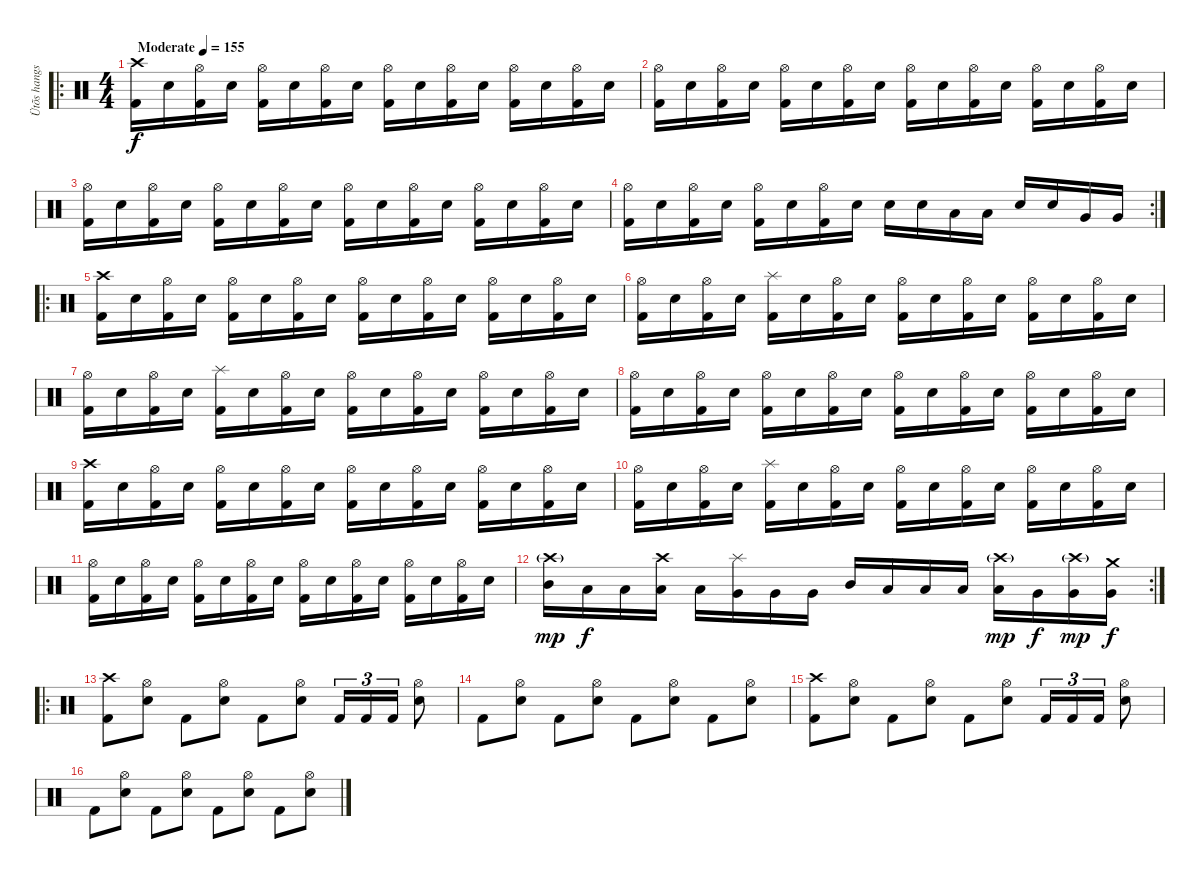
\track ("Ütõs hangszer" "Ütõs hangs") {instrument percussion}
\staff {score}
\articulation defaults
\ro
\ts (4 4)
\tempo (155 "Moderate")
\clef neutral
\ks c
("Crash high (hit)" "Kick (hit) 2").16{dy f} "Snare (hit) 2".16 ("Hi-Hat (open)" "Kick (hit) 2").16 "Snare (hit) 2".16 ("Hi-Hat (open)" "Kick (hit) 2").16 "Snare (hit) 2".16 ("Hi-Hat (open)" "Kick (hit) 2").16 "Snare (hit) 2".16 ("Hi-Hat (open)" "Kick (hit) 2").16 "Snare (hit) 2".16 ("Hi-Hat (open)" "Kick (hit) 2").16 "Snare (hit) 2".16 ("Hi-Hat (open)" "Kick (hit) 2").16 "Snare (hit) 2".16 ("Hi-Hat (open)" "Kick (hit) 2").16 "Snare (hit) 2".16 |
("Hi-Hat (open)" "Kick (hit) 2").16 "Snare (hit) 2".16 ("Hi-Hat (open)" "Kick (hit) 2").16 "Snare (hit) 2".16 ("Hi-Hat (open)" "Kick (hit) 2").16 "Snare (hit) 2".16 ("Hi-Hat (open)" "Kick (hit) 2").16 "Snare (hit) 2".16 ("Hi-Hat (open)" "Kick (hit) 2").16 "Snare (hit) 2".16 ("Hi-Hat (open)" "Kick (hit) 2").16 "Snare (hit) 2".16 ("Hi-Hat (open)" "Kick (hit) 2").16 "Snare (hit) 2".16 ("Hi-Hat (open)" "Kick (hit) 2").16 "Snare (hit) 2".16 |
("Hi-Hat (open)" "Kick (hit) 2").16 "Snare (hit) 2".16 ("Hi-Hat (open)" "Kick (hit) 2").16 "Snare (hit) 2".16 ("Hi-Hat (open)" "Kick (hit) 2").16 "Snare (hit) 2".16 ("Hi-Hat (open)" "Kick (hit) 2").16 "Snare (hit) 2".16 ("Hi-Hat (open)" "Kick (hit) 2").16 "Snare (hit) 2".16 ("Hi-Hat (open)" "Kick (hit) 2").16 "Snare (hit) 2".16 ("Hi-Hat (open)" "Kick (hit) 2").16 "Snare (hit) 2".16 ("Hi-Hat (open)" "Kick (hit) 2").16 "Snare (hit) 2".16 |
\rc 2
("Hi-Hat (open)" "Kick (hit) 2").16 "Snare (hit) 2".16 ("Hi-Hat (open)" "Kick (hit) 2").16 "Snare (hit) 2".16 ("Hi-Hat (open)" "Kick (hit) 2").16 "Snare (hit) 2".16 ("Hi-Hat (open)" "Kick (hit) 2").16 "Snare (hit) 2".16 "Snare (hit) 2".16 "Snare (hit) 2".16 "Low Tom (hit)".16 "Low Tom (hit)".16 "Snare (hit) 2".16 "Snare (hit) 2".16 "Very Low Tom (hit)".16 "Very Low Tom (hit)".16 |
\ro
("Crash high (hit)" "Kick (hit) 2").16 "Snare (hit) 2".16 ("Hi-Hat (open)" "Kick (hit) 2").16 "Snare (hit) 2".16 ("Hi-Hat (open)" "Kick (hit) 2").16 "Snare (hit) 2".16 ("Hi-Hat (open)" "Kick (hit) 2").16 "Snare (hit) 2".16 ("Hi-Hat (open)" "Kick (hit) 2").16 "Snare (hit) 2".16 ("Hi-Hat (open)" "Kick (hit) 2").16 "Snare (hit) 2".16 ("Hi-Hat (open)" "Kick (hit) 2").16 "Snare (hit) 2".16 ("Hi-Hat (open)" "Kick (hit) 2").16 "Snare (hit) 2".16 |
("Hi-Hat (open)" "Kick (hit) 2").16 "Snare (hit) 2".16 ("Hi-Hat (open)" "Kick (hit) 2").16 "Snare (hit) 2".16 ("Splash (hit)" "Kick (hit) 2").16 "Snare (hit) 2".16 ("Hi-Hat (open)" "Kick (hit) 2").16 "Snare (hit) 2".16 ("Hi-Hat (open)" "Kick (hit) 2").16 "Snare (hit) 2".16 ("Hi-Hat (open)" "Kick (hit) 2").16 "Snare (hit) 2".16 ("Hi-Hat (open)" "Kick (hit) 2").16 "Snare (hit) 2".16 ("Hi-Hat (open)" "Kick (hit) 2").16 "Snare (hit) 2".16 |
("Hi-Hat (open)" "Kick (hit) 2").16 "Snare (hit) 2".16 ("Hi-Hat (open)" "Kick (hit) 2").16 "Snare (hit) 2".16 ("Splash (hit)" "Kick (hit) 2").16 "Snare (hit) 2".16 ("Hi-Hat (open)" "Kick (hit) 2").16 "Snare (hit) 2".16 ("Hi-Hat (open)" "Kick (hit) 2").16 "Snare (hit) 2".16 ("Hi-Hat (open)" "Kick (hit) 2").16 "Snare (hit) 2".16 ("Hi-Hat (open)" "Kick (hit) 2").16 "Snare (hit) 2".16 ("Hi-Hat (open)" "Kick (hit) 2").16 "Snare (hit) 2".16 |
("Hi-Hat (open)" "Kick (hit) 2").16 "Snare (hit) 2".16 ("Hi-Hat (open)" "Kick (hit) 2").16 "Snare (hit) 2".16 ("Hi-Hat (open)" "Kick (hit) 2").16 "Snare (hit) 2".16 ("Hi-Hat (open)" "Kick (hit) 2").16 "Snare (hit) 2".16 ("Hi-Hat (open)" "Kick (hit) 2").16 "Snare (hit) 2".16 ("Hi-Hat (open)" "Kick (hit) 2").16 "Snare (hit) 2".16 ("Hi-Hat (open)" "Kick (hit) 2").16 "Snare (hit) 2".16 ("Hi-Hat (open)" "Kick (hit) 2").16 "Snare (hit) 2".16 |
("Crash high (hit)" "Kick (hit) 2").16 "Snare (hit) 2".16 ("Hi-Hat (open)" "Kick (hit) 2").16 "Snare (hit) 2".16 ("Hi-Hat (open)" "Kick (hit) 2").16 "Snare (hit) 2".16 ("Hi-Hat (open)" "Kick (hit) 2").16 "Snare (hit) 2".16 ("Hi-Hat (open)" "Kick (hit) 2").16 "Snare (hit) 2".16 ("Hi-Hat (open)" "Kick (hit) 2").16 "Snare (hit) 2".16 ("Hi-Hat (open)" "Kick (hit) 2").16 "Snare (hit) 2".16 ("Hi-Hat (open)" "Kick (hit) 2").16 "Snare (hit) 2".16 |
("Hi-Hat (open)" "Kick (hit) 2").16 "Snare (hit) 2".16 ("Hi-Hat (open)" "Kick (hit) 2").16 "Snare (hit) 2".16 ("Splash (hit)" "Kick (hit) 2").16 "Snare (hit) 2".16 ("Hi-Hat (open)" "Kick (hit) 2").16 "Snare (hit) 2".16 ("Hi-Hat (open)" "Kick (hit) 2").16 "Snare (hit) 2".16 ("Hi-Hat (open)" "Kick (hit) 2").16 "Snare (hit) 2".16 ("Hi-Hat (open)" "Kick (hit) 2").16 "Snare (hit) 2".16 ("Hi-Hat (open)" "Kick (hit) 2").16 "Snare (hit) 2".16 |
("Hi-Hat (open)" "Kick (hit) 2").16 "Snare (hit) 2".16 ("Hi-Hat (open)" "Kick (hit) 2").16 "Snare (hit) 2".16 ("Hi-Hat (open)" "Kick (hit) 2").16 "Snare (hit) 2".16 ("Hi-Hat (open)" "Kick (hit) 2").16 "Snare (hit) 2".16 ("Hi-Hat (open)" "Kick (hit) 2").16 "Snare (hit) 2".16 ("Hi-Hat (open)" "Kick (hit) 2").16 "Snare (hit) 2".16 ("Hi-Hat (open)" "Kick (hit) 2").16 "Snare (hit) 2".16 ("Hi-Hat (open)" "Kick (hit) 2").16 "Snare (hit) 2".16 |
\rc 2
("Crash high (hit)"{g} "Mid Tom (hit)").16{dy mp} "Low Tom (hit)".16{dy f} "Low Tom (hit)".16 ("Crash high (hit)" "Low Tom (hit)").16 "Low Tom (hit)".16 ("Splash (hit)" "Very Low Tom (hit)").16 "Very Low Tom (hit)".16 "Very Low Tom (hit)".16 "Mid Tom (hit)".16 "Low Tom (hit)".16 "Low Tom (hit)".16 "Low Tom (hit)".16 ("Crash high (hit)"{g} "Low Tom (hit)").16{dy mp} "Very Low Tom (hit)".16{dy f} ("Crash high (hit)"{g} "Very Low Tom (hit)").16{dy mp} ("Crash medium (hit)" "Very Low Tom (hit)").16{dy f} |
\ro
("Crash high (hit)" "Kick (hit) 2").8 ("Hi-Hat (open)" "Snare (hit) 2").8 "Kick (hit) 2".8 ("Hi-Hat (open)" "Snare (hit) 2").8 "Kick (hit) 2".8 ("Hi-Hat (open)" "Snare (hit) 2").8 "Kick (hit) 2".16{tu (3 2)} "Kick (hit) 2".16{tu (3 2)} "Kick (hit) 2".16{tu (3 2)} ("Hi-Hat (open)" "Snare (hit) 2").8 |
"Kick (hit) 2".8 ("Hi-Hat (open)" "Snare (hit) 2").8 "Kick (hit) 2".8 ("Hi-Hat (open)" "Snare (hit) 2").8 "Kick (hit) 2".8 ("Hi-Hat (open)" "Snare (hit) 2").8 "Kick (hit) 2".8 ("Hi-Hat (open)" "Snare (hit) 2").8 |
("Crash high (hit)" "Kick (hit) 2").8 ("Hi-Hat (open)" "Snare (hit) 2").8 "Kick (hit) 2".8 ("Hi-Hat (open)" "Snare (hit) 2").8 "Kick (hit) 2".8 ("Hi-Hat (open)" "Snare (hit) 2").8 "Kick (hit) 2".16{tu (3 2)} "Kick (hit) 2".16{tu (3 2)} "Kick (hit) 2".16{tu (3 2)} ("Hi-Hat (open)" "Snare (hit) 2").8 |
"Kick (hit) 2".8 ("Hi-Hat (open)" "Snare (hit) 2").8 "Kick (hit) 2".8 ("Hi-Hat (open)" "Snare (hit) 2").8 "Kick (hit) 2".8 ("Hi-Hat (open)" "Snare (hit) 2").8 "Kick (hit) 2".8 ("Hi-Hat (open)" "Snare (hit) 2").8
